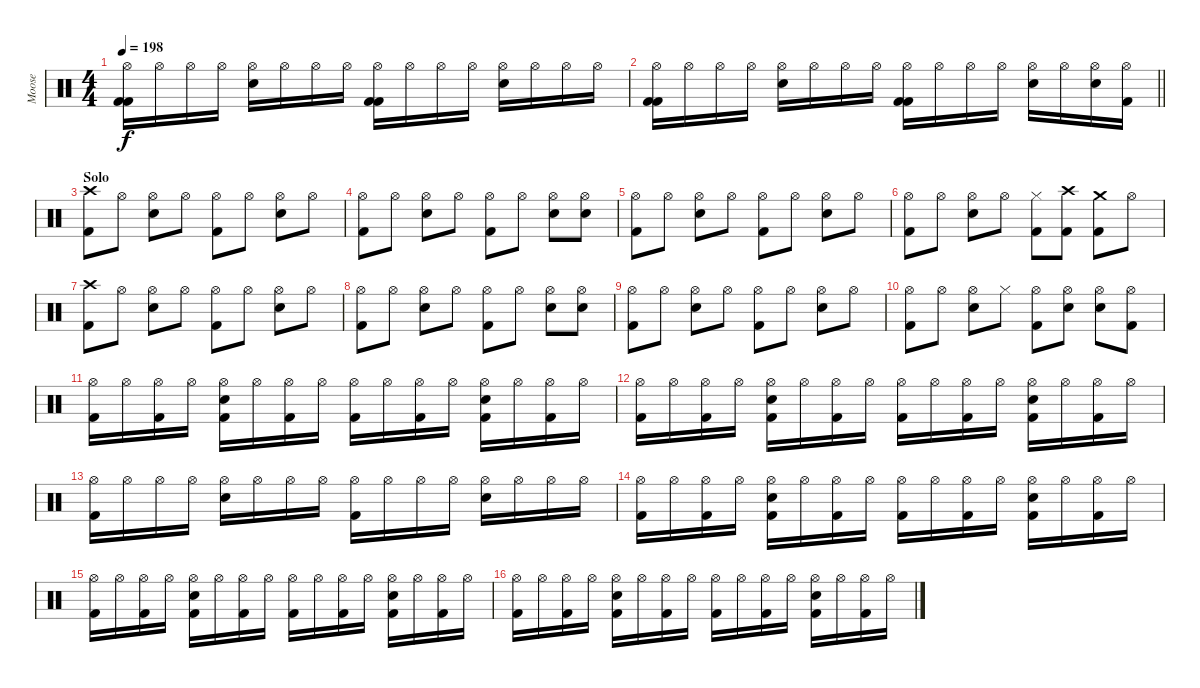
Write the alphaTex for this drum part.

\track ("Moose" "Moose") {instrument percussion}
\staff {score}
\articulation defaults
\ts (4 4)
\tempo 198
\clef neutral
\ks c
("Hi-Hat (open)" "Kick (hit) 2" "Kick (hit) 2").16{dy f} "Hi-Hat (open)".16 "Hi-Hat (open)".16 "Hi-Hat (open)".16 ("Hi-Hat (open)" "Electric Snare (hit)").16 "Hi-Hat (open)".16 "Hi-Hat (open)".16 "Hi-Hat (open)".16 ("Hi-Hat (open)" "Kick (hit) 2" "Kick (hit) 2").16 "Hi-Hat (open)".16 "Hi-Hat (open)".16 "Hi-Hat (open)".16 ("Hi-Hat (open)" "Electric Snare (hit)").16 "Hi-Hat (open)".16 "Hi-Hat (open)".16 "Hi-Hat (open)".16 |
\barLineRight lightlight
("Hi-Hat (open)" "Kick (hit) 2" "Kick (hit) 2").16 "Hi-Hat (open)".16 "Hi-Hat (open)".16 "Hi-Hat (open)".16 ("Hi-Hat (open)" "Electric Snare (hit)").16 "Hi-Hat (open)".16 "Hi-Hat (open)".16 "Hi-Hat (open)".16 ("Hi-Hat (open)" "Kick (hit) 2" "Kick (hit) 2").16 "Hi-Hat (open)".16 "Hi-Hat (open)".16 "Hi-Hat (open)".16 ("Hi-Hat (open)" "Electric Snare (hit)").16 "Hi-Hat (open)".16 ("Hi-Hat (open)" "Electric Snare (hit)").16 ("Hi-Hat (open)" "Kick (hit) 2").16 |
\section ("" "Solo")
("Crash high (hit)" "Kick (hit) 2").8 "Hi-Hat (open)".8 ("Hi-Hat (open)" "Electric Snare (hit)").8 "Hi-Hat (open)".8 ("Hi-Hat (open)" "Kick (hit) 2").8 "Hi-Hat (open)".8 ("Hi-Hat (open)" "Electric Snare (hit)").8 "Hi-Hat (open)".8 |
("Hi-Hat (open)" "Kick (hit) 2").8 "Hi-Hat (open)".8 ("Hi-Hat (open)" "Electric Snare (hit)").8 "Hi-Hat (open)".8 ("Hi-Hat (open)" "Kick (hit) 2").8 "Hi-Hat (open)".8 ("Hi-Hat (open)" "Electric Snare (hit)").8 ("Hi-Hat (open)" "Electric Snare (hit)").8 |
("Hi-Hat (open)" "Kick (hit) 2").8 "Hi-Hat (open)".8 ("Hi-Hat (open)" "Electric Snare (hit)").8 "Hi-Hat (open)".8 ("Hi-Hat (open)" "Kick (hit) 2").8 "Hi-Hat (open)".8 ("Hi-Hat (open)" "Electric Snare (hit)").8 "Hi-Hat (open)".8 |
("Hi-Hat (open)" "Kick (hit) 2").8 "Hi-Hat (open)".8 ("Hi-Hat (open)" "Electric Snare (hit)").8 "Hi-Hat (open)".8 ("Hi-Hat (closed)" "Kick (hit) 2").8 ("Crash high (hit)" "Kick (hit) 2").8 ("Crash medium (hit)" "Kick (hit) 2").8 "Hi-Hat (open)".8 |
("Crash high (hit)" "Kick (hit) 2").8 "Hi-Hat (open)".8 ("Hi-Hat (open)" "Electric Snare (hit)").8 "Hi-Hat (open)".8 ("Hi-Hat (open)" "Kick (hit) 2").8 "Hi-Hat (open)".8 ("Hi-Hat (open)" "Electric Snare (hit)").8 "Hi-Hat (open)".8 |
("Hi-Hat (open)" "Kick (hit) 2").8 "Hi-Hat (open)".8 ("Hi-Hat (open)" "Electric Snare (hit)").8 "Hi-Hat (open)".8 ("Hi-Hat (open)" "Kick (hit) 2").8 "Hi-Hat (open)".8 ("Hi-Hat (open)" "Electric Snare (hit)").8 ("Hi-Hat (open)" "Electric Snare (hit)").8 |
("Hi-Hat (open)" "Kick (hit) 2").8 "Hi-Hat (open)".8 ("Hi-Hat (open)" "Electric Snare (hit)").8 "Hi-Hat (open)".8 ("Hi-Hat (open)" "Kick (hit) 2").8 "Hi-Hat (open)".8 ("Hi-Hat (open)" "Electric Snare (hit)").8 "Hi-Hat (open)".8 |
("Hi-Hat (open)" "Kick (hit) 2").8 "Hi-Hat (open)".8 ("Hi-Hat (open)" "Electric Snare (hit)").8 "Hi-Hat (closed)".8 ("Hi-Hat (open)" "Kick (hit) 2").8 ("Hi-Hat (open)" "Electric Snare (hit)").8 ("Hi-Hat (open)" "Electric Snare (hit)").8 ("Hi-Hat (open)" "Kick (hit) 2").8 |
("Hi-Hat (open)" "Kick (hit) 2").16 "Hi-Hat (open)".16 ("Hi-Hat (open)" "Kick (hit) 2").16 "Hi-Hat (open)".16 ("Hi-Hat (open)" "Electric Snare (hit)" "Kick (hit) 2").16 "Hi-Hat (open)".16 ("Hi-Hat (open)" "Kick (hit) 2").16 "Hi-Hat (open)".16 ("Hi-Hat (open)" "Kick (hit) 2").16 "Hi-Hat (open)".16 ("Hi-Hat (open)" "Kick (hit) 2").16 "Hi-Hat (open)".16 ("Hi-Hat (open)" "Electric Snare (hit)" "Kick (hit) 2").16 "Hi-Hat (open)".16 ("Hi-Hat (open)" "Kick (hit) 2").16 "Hi-Hat (open)".16 |
("Hi-Hat (open)" "Kick (hit) 2").16 "Hi-Hat (open)".16 ("Hi-Hat (open)" "Kick (hit) 2").16 "Hi-Hat (open)".16 ("Hi-Hat (open)" "Electric Snare (hit)" "Kick (hit) 2").16 "Hi-Hat (open)".16 ("Hi-Hat (open)" "Kick (hit) 2").16 "Hi-Hat (open)".16 ("Hi-Hat (open)" "Kick (hit) 2").16 "Hi-Hat (open)".16 ("Hi-Hat (open)" "Kick (hit) 2").16 "Hi-Hat (open)".16 ("Hi-Hat (open)" "Electric Snare (hit)" "Kick (hit) 2").16 "Hi-Hat (open)".16 ("Hi-Hat (open)" "Kick (hit) 2").16 "Hi-Hat (open)".16 |
("Hi-Hat (open)" "Kick (hit) 2").16 "Hi-Hat (open)".16 "Hi-Hat (open)".16 "Hi-Hat (open)".16 ("Hi-Hat (open)" "Electric Snare (hit)").16 "Hi-Hat (open)".16 "Hi-Hat (open)".16 "Hi-Hat (open)".16 ("Hi-Hat (open)" "Kick (hit) 2").16 "Hi-Hat (open)".16 "Hi-Hat (open)".16 "Hi-Hat (open)".16 ("Hi-Hat (open)" "Electric Snare (hit)").16 "Hi-Hat (open)".16 "Hi-Hat (open)".16 "Hi-Hat (open)".16 |
("Hi-Hat (open)" "Kick (hit) 2").16 "Hi-Hat (open)".16 ("Hi-Hat (open)" "Kick (hit) 2").16 "Hi-Hat (open)".16 ("Hi-Hat (open)" "Electric Snare (hit)" "Kick (hit) 2").16 "Hi-Hat (open)".16 ("Hi-Hat (open)" "Kick (hit) 2").16 "Hi-Hat (open)".16 ("Hi-Hat (open)" "Kick (hit) 2").16 "Hi-Hat (open)".16 ("Hi-Hat (open)" "Kick (hit) 2").16 "Hi-Hat (open)".16 ("Hi-Hat (open)" "Electric Snare (hit)" "Kick (hit) 2").16 "Hi-Hat (open)".16 ("Hi-Hat (open)" "Kick (hit) 2").16 "Hi-Hat (open)".16 |
("Hi-Hat (open)" "Kick (hit) 2").16 "Hi-Hat (open)".16 ("Hi-Hat (open)" "Kick (hit) 2").16 "Hi-Hat (open)".16 ("Hi-Hat (open)" "Electric Snare (hit)" "Kick (hit) 2").16 "Hi-Hat (open)".16 ("Hi-Hat (open)" "Kick (hit) 2").16 "Hi-Hat (open)".16 ("Hi-Hat (open)" "Kick (hit) 2").16 "Hi-Hat (open)".16 ("Hi-Hat (open)" "Kick (hit) 2").16 "Hi-Hat (open)".16 ("Hi-Hat (open)" "Electric Snare (hit)" "Kick (hit) 2").16 "Hi-Hat (open)".16 ("Hi-Hat (open)" "Kick (hit) 2").16 "Hi-Hat (open)".16 |
("Hi-Hat (open)" "Kick (hit) 2").16 "Hi-Hat (open)".16 ("Hi-Hat (open)" "Kick (hit) 2").16 "Hi-Hat (open)".16 ("Hi-Hat (open)" "Electric Snare (hit)" "Kick (hit) 2").16 "Hi-Hat (open)".16 ("Hi-Hat (open)" "Kick (hit) 2").16 "Hi-Hat (open)".16 ("Hi-Hat (open)" "Kick (hit) 2").16 "Hi-Hat (open)".16 ("Hi-Hat (open)" "Kick (hit) 2").16 "Hi-Hat (open)".16 ("Hi-Hat (open)" "Electric Snare (hit)" "Kick (hit) 2").16 "Hi-Hat (open)".16 ("Hi-Hat (open)" "Kick (hit) 2").16 "Hi-Hat (open)".16
